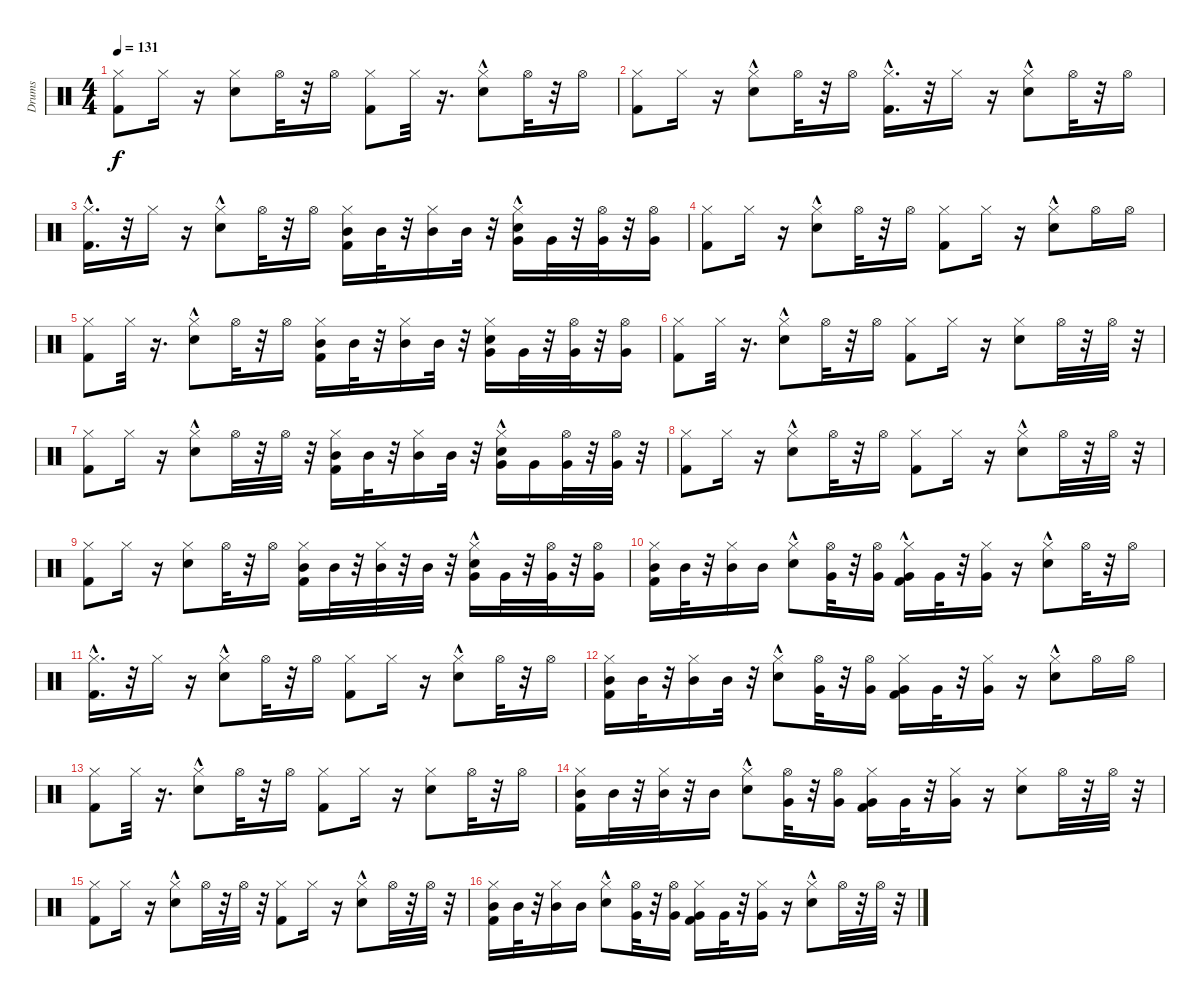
\track ("Drums" "Drums") {instrument percussion}
\staff {score}
\articulation defaults
\ts (4 4)
\tempo 131
\clef neutral
\ks c
("Kick (hit) 2" "Hi-Hat (closed)").8{dy f} "Hi-Hat (closed)".16 r.16 ("Snare (hit) 2" "Hi-Hat (closed)").8 "Hi-Hat (open)".32 r.32 "Hi-Hat (open)".16 ("Kick (hit) 2" "Hi-Hat (closed)").8 "Hi-Hat (closed)".32 r.16{d} ("Snare (hit) 2" "Hi-Hat (closed)"{hac}).8 "Hi-Hat (open)".32 r.32 "Hi-Hat (open)".16 |
("Kick (hit) 2" "Hi-Hat (closed)").8 "Hi-Hat (closed)".16 r.16 ("Snare (hit) 2" "Hi-Hat (closed)"{hac}).8 "Hi-Hat (open)".32 r.32 "Hi-Hat (open)".16 ("Kick (hit) 2"{hac} "Hi-Hat (closed)").16{d} r.32 "Hi-Hat (closed)".16 r.16 ("Snare (hit) 2" "Hi-Hat (closed)"{hac}).8 "Hi-Hat (open)".32 r.32 "Hi-Hat (open)".16 |
("Kick (hit) 2"{hac} "Hi-Hat (closed)").16{d} r.32 "Hi-Hat (closed)".16 r.16 ("Snare (hit) 2" "Hi-Hat (closed)"{hac}).8 "Hi-Hat (open)".32 r.32 "Hi-Hat (open)".16 ("Kick (hit) 2" "Hi-Hat (closed)" "Mid Tom (hit)").16 "Mid Tom (hit)".32 r.32 ("Hi-Hat (closed)" "Mid Tom (hit)").16 "Mid Tom (hit)".32 r.32 ("Snare (hit) 2" "Hi-Hat (closed)"{hac} "Very Low Tom (hit)").16 "Very Low Tom (hit)".32 r.32 ("Hi-Hat (open)" "Very Low Tom (hit)").32 r.32 ("Hi-Hat (open)" "Very Low Tom (hit)").16 |
("Kick (hit) 2" "Hi-Hat (closed)").8 "Hi-Hat (closed)".16 r.16 ("Snare (hit) 2" "Hi-Hat (closed)"{hac}).8 "Hi-Hat (open)".32 r.32 "Hi-Hat (open)".16 ("Kick (hit) 2" "Hi-Hat (closed)").8 "Hi-Hat (closed)".16 r.16 ("Snare (hit) 2" "Hi-Hat (closed)"{hac}).8 "Hi-Hat (open)".16 "Hi-Hat (open)".16 |
("Kick (hit) 2" "Hi-Hat (closed)").8 "Hi-Hat (closed)".32 r.16{d} ("Snare (hit) 2" "Hi-Hat (closed)"{hac}).8 "Hi-Hat (open)".32 r.32 "Hi-Hat (open)".16 ("Kick (hit) 2" "Hi-Hat (closed)" "Mid Tom (hit)").16 "Mid Tom (hit)".32 r.32 ("Hi-Hat (closed)" "Mid Tom (hit)").16 "Mid Tom (hit)".32 r.32 ("Snare (hit) 2" "Hi-Hat (closed)" "Very Low Tom (hit)").16 "Very Low Tom (hit)".32 r.32 ("Hi-Hat (open)" "Very Low Tom (hit)").32 r.32 ("Hi-Hat (open)" "Very Low Tom (hit)").16 |
("Kick (hit) 2" "Hi-Hat (closed)").8 "Hi-Hat (closed)".32 r.16{d} ("Snare (hit) 2" "Hi-Hat (closed)"{hac}).8 "Hi-Hat (open)".32 r.32 "Hi-Hat (open)".16 ("Kick (hit) 2" "Hi-Hat (closed)").8 "Hi-Hat (closed)".16 r.16 ("Snare (hit) 2" "Hi-Hat (closed)").8 "Hi-Hat (open)".32 r.32 "Hi-Hat (open)".32 r.32 |
("Kick (hit) 2" "Hi-Hat (closed)").8 "Hi-Hat (closed)".16 r.16 ("Snare (hit) 2" "Hi-Hat (closed)"{hac}).8 "Hi-Hat (open)".32 r.32 "Hi-Hat (open)".32 r.32 ("Kick (hit) 2" "Hi-Hat (closed)" "Mid Tom (hit)").16 "Mid Tom (hit)".32 r.32 ("Hi-Hat (closed)" "Mid Tom (hit)").16 "Mid Tom (hit)".32 r.32 ("Snare (hit) 2" "Hi-Hat (closed)"{hac} "Very Low Tom (hit)").16 "Very Low Tom (hit)".16 ("Hi-Hat (open)" "Very Low Tom (hit)").32 r.32 ("Hi-Hat (open)" "Very Low Tom (hit)").32 r.32 |
("Kick (hit) 2" "Hi-Hat (closed)").8 "Hi-Hat (closed)".16 r.16 ("Snare (hit) 2" "Hi-Hat (closed)"{hac}).8 "Hi-Hat (open)".32 r.32 "Hi-Hat (open)".16 ("Kick (hit) 2" "Hi-Hat (closed)").8 "Hi-Hat (closed)".16 r.16 ("Snare (hit) 2" "Hi-Hat (closed)"{hac}).8 "Hi-Hat (open)".32 r.32 "Hi-Hat (open)".32 r.32 |
("Kick (hit) 2" "Hi-Hat (closed)").8 "Hi-Hat (closed)".16 r.16 ("Snare (hit) 2" "Hi-Hat (closed)").8 "Hi-Hat (open)".32 r.32 "Hi-Hat (open)".16 ("Kick (hit) 2" "Hi-Hat (closed)" "Mid Tom (hit)").16 "Mid Tom (hit)".32 r.32 ("Hi-Hat (closed)" "Mid Tom (hit)").32 r.32 "Mid Tom (hit)".32 r.32 ("Snare (hit) 2" "Hi-Hat (closed)"{hac} "Very Low Tom (hit)").16 "Very Low Tom (hit)".32 r.32 ("Hi-Hat (open)" "Very Low Tom (hit)").32 r.32 ("Hi-Hat (open)" "Very Low Tom (hit)").16 |
("Kick (hit) 2" "Hi-Hat (closed)" "Mid Tom (hit)").16 "Mid Tom (hit)".32 r.32 ("Hi-Hat (closed)" "Mid Tom (hit)").16 "Mid Tom (hit)".16 ("Snare (hit) 2" "Hi-Hat (closed)"{hac}).8 ("Hi-Hat (open)" "Very Low Tom (hit)").32 r.32 ("Hi-Hat (open)" "Very Low Tom (hit)").16 ("Kick (hit) 2"{hac} "Hi-Hat (closed)" "Very Low Tom (hit)").16 "Very Low Tom (hit)".32 r.32 ("Hi-Hat (closed)" "Very Low Tom (hit)").16 r.16 ("Snare (hit) 2" "Hi-Hat (closed)"{hac}).8 "Hi-Hat (open)".32 r.32 "Hi-Hat (open)".16 |
("Kick (hit) 2"{hac} "Hi-Hat (closed)").16{d} r.32 "Hi-Hat (closed)".16 r.16 ("Snare (hit) 2" "Hi-Hat (closed)"{hac}).8 "Hi-Hat (open)".32 r.32 "Hi-Hat (open)".16 ("Kick (hit) 2" "Hi-Hat (closed)").8 "Hi-Hat (closed)".16 r.16 ("Snare (hit) 2" "Hi-Hat (closed)"{hac}).8 "Hi-Hat (open)".32 r.32 "Hi-Hat (open)".16 |
("Kick (hit) 2" "Hi-Hat (closed)" "Mid Tom (hit)").16 "Mid Tom (hit)".32 r.32 ("Hi-Hat (closed)" "Mid Tom (hit)").16 "Mid Tom (hit)".32 r.32 ("Snare (hit) 2" "Hi-Hat (closed)"{hac}).8 ("Hi-Hat (open)" "Very Low Tom (hit)").32 r.32 ("Hi-Hat (open)" "Very Low Tom (hit)").16 ("Kick (hit) 2" "Hi-Hat (closed)" "Very Low Tom (hit)").16 "Very Low Tom (hit)".32 r.32 ("Hi-Hat (closed)" "Very Low Tom (hit)").16 r.16 ("Snare (hit) 2" "Hi-Hat (closed)"{hac}).8 "Hi-Hat (open)".16 "Hi-Hat (open)".16 |
("Kick (hit) 2" "Hi-Hat (closed)").8 "Hi-Hat (closed)".32 r.16{d} ("Snare (hit) 2" "Hi-Hat (closed)"{hac}).8 "Hi-Hat (open)".32 r.32 "Hi-Hat (open)".16 ("Kick (hit) 2" "Hi-Hat (closed)").8 "Hi-Hat (closed)".16 r.16 ("Snare (hit) 2" "Hi-Hat (closed)").8 "Hi-Hat (open)".32 r.32 "Hi-Hat (open)".16 |
("Kick (hit) 2" "Hi-Hat (closed)" "Mid Tom (hit)").16 "Mid Tom (hit)".32 r.32 ("Hi-Hat (closed)" "Mid Tom (hit)").32 r.32 "Mid Tom (hit)".16 ("Snare (hit) 2" "Hi-Hat (closed)"{hac}).8 ("Hi-Hat (open)" "Very Low Tom (hit)").32 r.32 ("Hi-Hat (open)" "Very Low Tom (hit)").16 ("Kick (hit) 2" "Hi-Hat (closed)" "Very Low Tom (hit)").16 "Very Low Tom (hit)".32 r.32 ("Hi-Hat (closed)" "Very Low Tom (hit)").16 r.16 ("Snare (hit) 2" "Hi-Hat (closed)").8 "Hi-Hat (open)".32 r.32 "Hi-Hat (open)".32 r.32 |
("Kick (hit) 2" "Hi-Hat (closed)").8 "Hi-Hat (closed)".16 r.16 ("Snare (hit) 2" "Hi-Hat (closed)"{hac}).8 "Hi-Hat (open)".32 r.32 "Hi-Hat (open)".32 r.32 ("Kick (hit) 2" "Hi-Hat (closed)").8 "Hi-Hat (closed)".16 r.16 ("Snare (hit) 2" "Hi-Hat (closed)"{hac}).8 "Hi-Hat (open)".32 r.32 "Hi-Hat (open)".32 r.32 |
("Kick (hit) 2" "Hi-Hat (closed)" "Mid Tom (hit)").16 "Mid Tom (hit)".32 r.32 ("Hi-Hat (closed)" "Mid Tom (hit)").16 "Mid Tom (hit)".16 ("Snare (hit) 2" "Hi-Hat (closed)"{hac}).8 ("Hi-Hat (open)" "Very Low Tom (hit)").32 r.32 ("Hi-Hat (open)" "Very Low Tom (hit)").16 ("Kick (hit) 2" "Hi-Hat (closed)" "Very Low Tom (hit)").16 "Very Low Tom (hit)".32 r.32 ("Hi-Hat (closed)" "Very Low Tom (hit)").16 r.16 ("Snare (hit) 2" "Hi-Hat (closed)"{hac}).8 "Hi-Hat (open)".32 r.32 "Hi-Hat (open)".32 r.32
